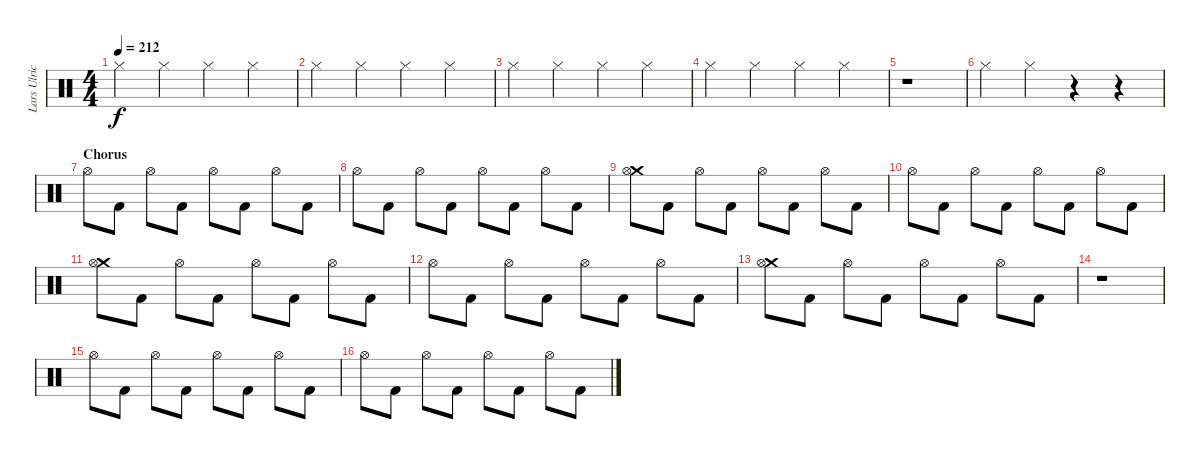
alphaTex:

\track ("Lars Ulrich" "Lars Ulric") {instrument percussion}
\staff {score}
\articulation defaults
\ts (4 4)
\tempo 212
\clef neutral
\ks c "Hi-Hat (closed)".4{dy f} "Hi-Hat (closed)".4 "Hi-Hat (closed)".4 "Hi-Hat (closed)".4
|
"Hi-Hat (closed)".4 "Hi-Hat (closed)".4 "Hi-Hat (closed)".4 "Hi-Hat (closed)".4 |
"Hi-Hat (closed)".4 "Hi-Hat (closed)".4 "Hi-Hat (closed)".4 "Hi-Hat (closed)".4 |
"Hi-Hat (closed)".4 "Hi-Hat (closed)".4 "Hi-Hat (closed)".4 "Hi-Hat (closed)".4 |
r.1 |
"Hi-Hat (closed)".4 "Hi-Hat (closed)".4 r.4 r.4 |
\section ("" "Chorus")
"Hi-Hat (open)".8 "Kick (hit) 2".8 "Hi-Hat (open)".8 "Kick (hit) 2".8 "Hi-Hat (open)".8 "Kick (hit) 2".8 "Hi-Hat (open)".8 "Kick (hit) 2".8 |
"Hi-Hat (open)".8 "Kick (hit) 2".8 "Hi-Hat (open)".8 "Kick (hit) 2".8 "Hi-Hat (open)".8 "Kick (hit) 2".8 "Hi-Hat (open)".8 "Kick (hit) 2".8 |
("Crash medium (hit)" "Hi-Hat (open)").8 "Kick (hit) 2".8 "Hi-Hat (open)".8 "Kick (hit) 2".8 "Hi-Hat (open)".8 "Kick (hit) 2".8 "Hi-Hat (open)".8 "Kick (hit) 2".8 |
"Hi-Hat (open)".8 "Kick (hit) 2".8 "Hi-Hat (open)".8 "Kick (hit) 2".8 "Hi-Hat (open)".8 "Kick (hit) 2".8 "Hi-Hat (open)".8 "Kick (hit) 2".8 |
("Crash medium (hit)" "Hi-Hat (open)").8 "Kick (hit) 2".8 "Hi-Hat (open)".8 "Kick (hit) 2".8 "Hi-Hat (open)".8 "Kick (hit) 2".8 "Hi-Hat (open)".8 "Kick (hit) 2".8 |
"Hi-Hat (open)".8 "Kick (hit) 2".8 "Hi-Hat (open)".8 "Kick (hit) 2".8 "Hi-Hat (open)".8 "Kick (hit) 2".8 "Hi-Hat (open)".8 "Kick (hit) 2".8 |
("Crash medium (hit)" "Hi-Hat (open)").8 "Kick (hit) 2".8 "Hi-Hat (open)".8 "Kick (hit) 2".8 "Hi-Hat (open)".8 "Kick (hit) 2".8 "Hi-Hat (open)".8 "Kick (hit) 2".8 |
r.1 |
"Hi-Hat (open)".8 "Kick (hit) 2".8 "Hi-Hat (open)".8 "Kick (hit) 2".8 "Hi-Hat (open)".8 "Kick (hit) 2".8 "Hi-Hat (open)".8 "Kick (hit) 2".8 |
"Hi-Hat (open)".8 "Kick (hit) 2".8 "Hi-Hat (open)".8 "Kick (hit) 2".8 "Hi-Hat (open)".8 "Kick (hit) 2".8 "Hi-Hat (open)".8 "Kick (hit) 2".8
